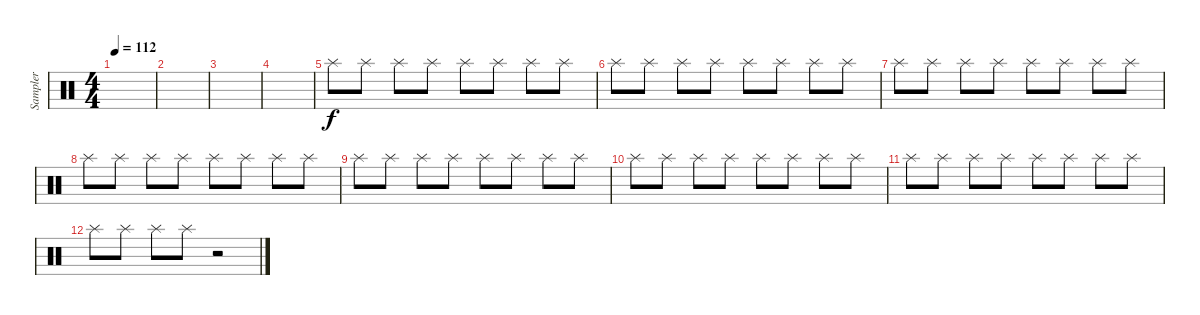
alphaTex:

\track ("Sampler" "Sampler") {instrument percussion}
\staff {score}
\articulation defaults
\ts (4 4)
\tempo 112
\clef neutral
\ks c
|
|
|
|
"Splash (hit)".8 "Splash (hit)".8 "Splash (hit)".8 "Splash (hit)".8 "Splash (hit)".8 "Splash (hit)".8 "Splash (hit)".8 "Splash (hit)".8 |
"Splash (hit)".8 "Splash (hit)".8 "Splash (hit)".8 "Splash (hit)".8 "Splash (hit)".8 "Splash (hit)".8 "Splash (hit)".8 "Splash (hit)".8 |
"Splash (hit)".8 "Splash (hit)".8 "Splash (hit)".8 "Splash (hit)".8 "Splash (hit)".8 "Splash (hit)".8 "Splash (hit)".8 "Splash (hit)".8 |
"Splash (hit)".8 "Splash (hit)".8 "Splash (hit)".8 "Splash (hit)".8 "Splash (hit)".8 "Splash (hit)".8 "Splash (hit)".8 "Splash (hit)".8 |
"Splash (hit)".8 "Splash (hit)".8 "Splash (hit)".8 "Splash (hit)".8 "Splash (hit)".8 "Splash (hit)".8 "Splash (hit)".8 "Splash (hit)".8 |
"Splash (hit)".8 "Splash (hit)".8 "Splash (hit)".8 "Splash (hit)".8 "Splash (hit)".8 "Splash (hit)".8 "Splash (hit)".8 "Splash (hit)".8 |
"Splash (hit)".8 "Splash (hit)".8 "Splash (hit)".8 "Splash (hit)".8 "Splash (hit)".8 "Splash (hit)".8 "Splash (hit)".8 "Splash (hit)".8 |
"Splash (hit)".8 "Splash (hit)".8 "Splash (hit)".8 "Splash (hit)".8 r.2
